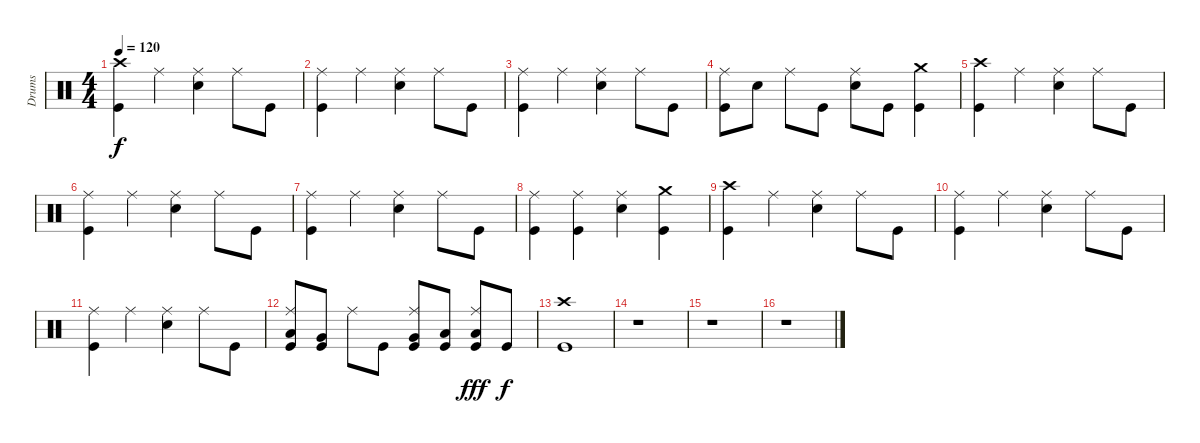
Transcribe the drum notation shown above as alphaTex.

\track ("Drums" "Drums") {instrument percussion}
\staff {score}
\articulation defaults
\ts (4 4)
\tempo 120
\clef neutral
\ks c
("Crash high (hit)" "Kick (hit)").4{dy f} "Ride (middle)".4 ("Ride (middle)" "Snare (hit) 2").4 "Ride (middle)".8 "Kick (hit)".8 |
("Ride (middle)" "Kick (hit)").4 "Ride (middle)".4 ("Ride (middle)" "Snare (hit) 2").4 "Ride (middle)".8 "Kick (hit)".8 |
("Ride (middle)" "Kick (hit)").4 "Ride (middle)".4 ("Ride (middle)" "Snare (hit) 2").4 "Ride (middle)".8 "Kick (hit)".8 |
("Ride (middle)" "Kick (hit)").8 "Snare (hit) 2".8 "Ride (middle)".8 "Kick (hit)".8 ("Ride (middle)" "Snare (hit) 2").8 "Kick (hit)".8 ("Crash medium (hit)" "Kick (hit)").4 |
("Crash high (hit)" "Kick (hit)").4 "Ride (middle)".4 ("Ride (middle)" "Snare (hit) 2").4 "Ride (middle)".8 "Kick (hit)".8 |
("Ride (middle)" "Kick (hit)").4 "Ride (middle)".4 ("Ride (middle)" "Snare (hit) 2").4 "Ride (middle)".8 "Kick (hit)".8 |
("Ride (middle)" "Kick (hit)").4 "Ride (middle)".4 ("Ride (middle)" "Snare (hit) 2").4 "Ride (middle)".8 "Kick (hit)".8 |
("Ride (middle)" "Kick (hit)").4 ("Ride (middle)" "Kick (hit)").4 ("Ride (middle)" "Snare (hit) 2").4 ("Crash medium (hit)" "Kick (hit)").4 |
("Crash high (hit)" "Kick (hit)").4 "Ride (middle)".4 ("Ride (middle)" "Snare (hit) 2").4 "Ride (middle)".8 "Kick (hit)".8 |
("Ride (middle)" "Kick (hit)").4 "Ride (middle)".4 ("Ride (middle)" "Snare (hit) 2").4 "Ride (middle)".8 "Kick (hit)".8 |
("Ride (middle)" "Kick (hit)").4 "Ride (middle)".4 ("Ride (middle)" "Snare (hit) 2").4 "Ride (middle)".8 "Kick (hit)".8 |
("Ride (middle)" "Kick (hit)" "Low Tom (hit)").8 ("Kick (hit)" "Very Low Tom (hit)").8 "Ride (middle)".8 "Kick (hit)".8 ("Ride (middle)" "Kick (hit)" "Very Low Tom (hit)").8 ("Kick (hit)" "Low Floor Tom (hit)").8 ("Ride (middle)" "Kick (hit)" "Low Tom (hit)").8{dy fff} "Kick (hit)".8{dy f} |
("Crash high (hit)" "Kick (hit)").1 |
r.1 |
r.1 |
r.1
